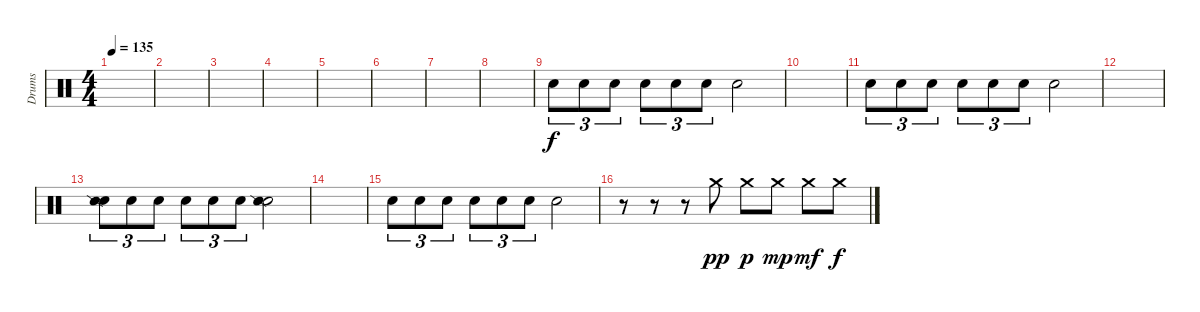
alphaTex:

\track ("Drums" "Drums") {instrument percussion}
\staff {score}
\articulation defaults
\ts (4 4)
\tempo 135
\clef neutral
\ks c
|
|
|
|
|
|
|
|
"Snare (hit) 2".8{tu (3 2)} "Snare (hit) 2".8{tu (3 2)} "Snare (hit) 2".8{tu (3 2)} "Snare (hit) 2".8{tu (3 2)} "Snare (hit) 2".8{tu (3 2)} "Snare (hit) 2".8{tu (3 2)} "Snare (hit) 2".2 |
|
"Snare (hit) 2".8{tu (3 2)} "Snare (hit) 2".8{tu (3 2)} "Snare (hit) 2".8{tu (3 2)} "Snare (hit) 2".8{tu (3 2)} "Snare (hit) 2".8{tu (3 2)} "Snare (hit) 2".8{tu (3 2)} "Snare (hit) 2".2 |
|
("Snare (hit) 2" "Snare (side stick) 2").8{tu (3 2)} "Snare (hit) 2".8{tu (3 2)} "Snare (hit) 2".8{tu (3 2)} "Snare (hit) 2".8{tu (3 2)} "Snare (hit) 2".8{tu (3 2)} "Snare (hit) 2".8{tu (3 2)} ("Snare (hit) 2" "Snare (side stick) 2").2 |
|
"Snare (hit) 2".8{tu (3 2)} "Snare (hit) 2".8{tu (3 2)} "Snare (hit) 2".8{tu (3 2)} "Snare (hit) 2".8{tu (3 2)} "Snare (hit) 2".8{tu (3 2)} "Snare (hit) 2".8{tu (3 2)} "Snare (hit) 2".2 |
r.8 r.8 r.8 "Crash medium (hit)".8{dy pp} "Crash medium (hit)".8{dy p} "Crash medium (hit)".8{dy mp} "Crash medium (hit)".8{dy mf} "Crash medium (hit)".8{dy f}
